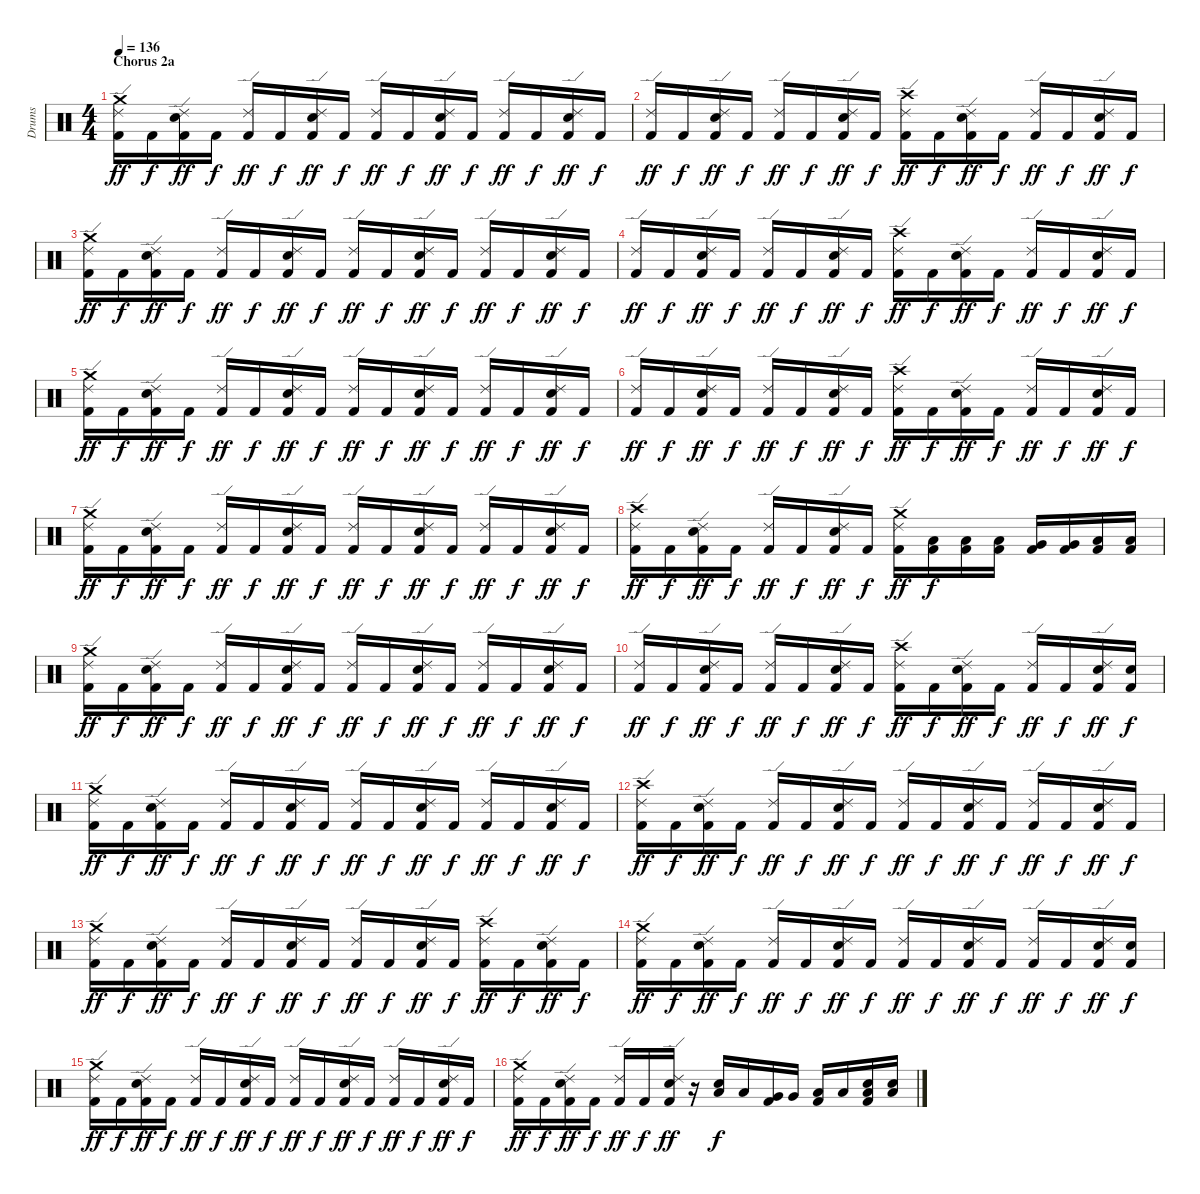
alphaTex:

\track ("Drums" "Drums") {instrument percussion}
\staff {score}
\articulation defaults
\ts (4 4)
\section ("" "Chorus 2a")
\tempo 136
\clef neutral
\ks c
("Crash medium (hit)" "Ride (edge) 2" "Kick (hit) 2").16{dy ff} "Kick (hit) 2".16{dy f} ("Ride (edge) 2" "Snare (hit) 2" "Kick (hit) 2").16{dy ff} "Kick (hit) 2".16{dy f} ("Ride (edge) 2" "Kick (hit) 2").16{dy ff} "Kick (hit) 2".16{dy f} ("Ride (edge) 2" "Snare (hit) 2" "Kick (hit) 2").16{dy ff} "Kick (hit) 2".16{dy f} ("Ride (edge) 2" "Kick (hit) 2").16{dy ff} "Kick (hit) 2".16{dy f} ("Ride (edge) 2" "Snare (hit) 2" "Kick (hit) 2").16{dy ff} "Kick (hit) 2".16{dy f} ("Ride (edge) 2" "Kick (hit) 2").16{dy ff} "Kick (hit) 2".16{dy f} ("Ride (edge) 2" "Snare (hit) 2" "Kick (hit) 2").16{dy ff} "Kick (hit) 2".16{dy f} |
("Ride (edge) 2" "Kick (hit) 2").16{dy ff} "Kick (hit) 2".16{dy f} ("Ride (edge) 2" "Snare (hit) 2" "Kick (hit) 2").16{dy ff} "Kick (hit) 2".16{dy f} ("Ride (edge) 2" "Kick (hit) 2").16{dy ff} "Kick (hit) 2".16{dy f} ("Ride (edge) 2" "Snare (hit) 2" "Kick (hit) 2").16{dy ff} "Kick (hit) 2".16{dy f} ("Crash high (hit)" "Ride (edge) 2" "Kick (hit) 2").16{dy ff} "Kick (hit) 2".16{dy f} ("Ride (edge) 2" "Snare (hit) 2" "Kick (hit) 2").16{dy ff} "Kick (hit) 2".16{dy f} ("Ride (edge) 2" "Kick (hit) 2").16{dy ff} "Kick (hit) 2".16{dy f} ("Ride (edge) 2" "Snare (hit) 2" "Kick (hit) 2").16{dy ff} "Kick (hit) 2".16{dy f} |
("Crash medium (hit)" "Ride (edge) 2" "Kick (hit) 2").16{dy ff} "Kick (hit) 2".16{dy f} ("Ride (edge) 2" "Snare (hit) 2" "Kick (hit) 2").16{dy ff} "Kick (hit) 2".16{dy f} ("Ride (edge) 2" "Kick (hit) 2").16{dy ff} "Kick (hit) 2".16{dy f} ("Ride (edge) 2" "Snare (hit) 2" "Kick (hit) 2").16{dy ff} "Kick (hit) 2".16{dy f} ("Ride (edge) 2" "Kick (hit) 2").16{dy ff} "Kick (hit) 2".16{dy f} ("Ride (edge) 2" "Snare (hit) 2" "Kick (hit) 2").16{dy ff} "Kick (hit) 2".16{dy f} ("Ride (edge) 2" "Kick (hit) 2").16{dy ff} "Kick (hit) 2".16{dy f} ("Ride (edge) 2" "Snare (hit) 2" "Kick (hit) 2").16{dy ff} "Kick (hit) 2".16{dy f} |
("Ride (edge) 2" "Kick (hit) 2").16{dy ff} "Kick (hit) 2".16{dy f} ("Ride (edge) 2" "Snare (hit) 2" "Kick (hit) 2").16{dy ff} "Kick (hit) 2".16{dy f} ("Ride (edge) 2" "Kick (hit) 2").16{dy ff} "Kick (hit) 2".16{dy f} ("Ride (edge) 2" "Snare (hit) 2" "Kick (hit) 2").16{dy ff} "Kick (hit) 2".16{dy f} ("Crash high (hit)" "Ride (edge) 2" "Kick (hit) 2").16{dy ff} "Kick (hit) 2".16{dy f} ("Ride (edge) 2" "Snare (hit) 2" "Kick (hit) 2").16{dy ff} "Kick (hit) 2".16{dy f} ("Ride (edge) 2" "Kick (hit) 2").16{dy ff} "Kick (hit) 2".16{dy f} ("Ride (edge) 2" "Snare (hit) 2" "Kick (hit) 2").16{dy ff} "Kick (hit) 2".16{dy f} |
("Crash medium (hit)" "Ride (edge) 2" "Kick (hit) 2").16{dy ff} "Kick (hit) 2".16{dy f} ("Ride (edge) 2" "Snare (hit) 2" "Kick (hit) 2").16{dy ff} "Kick (hit) 2".16{dy f} ("Ride (edge) 2" "Kick (hit) 2").16{dy ff} "Kick (hit) 2".16{dy f} ("Ride (edge) 2" "Snare (hit) 2" "Kick (hit) 2").16{dy ff} "Kick (hit) 2".16{dy f} ("Ride (edge) 2" "Kick (hit) 2").16{dy ff} "Kick (hit) 2".16{dy f} ("Ride (edge) 2" "Snare (hit) 2" "Kick (hit) 2").16{dy ff} "Kick (hit) 2".16{dy f} ("Ride (edge) 2" "Kick (hit) 2").16{dy ff} "Kick (hit) 2".16{dy f} ("Ride (edge) 2" "Snare (hit) 2" "Kick (hit) 2").16{dy ff} "Kick (hit) 2".16{dy f} |
("Ride (edge) 2" "Kick (hit) 2").16{dy ff} "Kick (hit) 2".16{dy f} ("Ride (edge) 2" "Snare (hit) 2" "Kick (hit) 2").16{dy ff} "Kick (hit) 2".16{dy f} ("Ride (edge) 2" "Kick (hit) 2").16{dy ff} "Kick (hit) 2".16{dy f} ("Ride (edge) 2" "Snare (hit) 2" "Kick (hit) 2").16{dy ff} "Kick (hit) 2".16{dy f} ("Crash high (hit)" "Ride (edge) 2" "Kick (hit) 2").16{dy ff} "Kick (hit) 2".16{dy f} ("Ride (edge) 2" "Snare (hit) 2" "Kick (hit) 2").16{dy ff} "Kick (hit) 2".16{dy f} ("Ride (edge) 2" "Kick (hit) 2").16{dy ff} "Kick (hit) 2".16{dy f} ("Ride (edge) 2" "Snare (hit) 2" "Kick (hit) 2").16{dy ff} "Kick (hit) 2".16{dy f} |
("Crash medium (hit)" "Ride (edge) 2" "Kick (hit) 2").16{dy ff} "Kick (hit) 2".16{dy f} ("Ride (edge) 2" "Snare (hit) 2" "Kick (hit) 2").16{dy ff} "Kick (hit) 2".16{dy f} ("Ride (edge) 2" "Kick (hit) 2").16{dy ff} "Kick (hit) 2".16{dy f} ("Ride (edge) 2" "Snare (hit) 2" "Kick (hit) 2").16{dy ff} "Kick (hit) 2".16{dy f} ("Ride (edge) 2" "Kick (hit) 2").16{dy ff} "Kick (hit) 2".16{dy f} ("Ride (edge) 2" "Snare (hit) 2" "Kick (hit) 2").16{dy ff} "Kick (hit) 2".16{dy f} ("Ride (edge) 2" "Kick (hit) 2").16{dy ff} "Kick (hit) 2".16{dy f} ("Ride (edge) 2" "Snare (hit) 2" "Kick (hit) 2").16{dy ff} "Kick (hit) 2".16{dy f} |
("Crash high (hit)" "Ride (edge) 2" "Kick (hit) 2").16{dy ff} "Kick (hit) 2".16{dy f} ("Ride (edge) 2" "Snare (hit) 2" "Kick (hit) 2").16{dy ff} "Kick (hit) 2".16{dy f} ("Ride (edge) 2" "Kick (hit) 2").16{dy ff} "Kick (hit) 2".16{dy f} ("Ride (edge) 2" "Snare (hit) 2" "Kick (hit) 2").16{dy ff} "Kick (hit) 2".16{dy f} ("Crash medium (hit)" "Ride (edge) 2" "Kick (hit) 2").16{dy ff} ("Low Tom (hit)" "Kick (hit) 2").16{dy f} ("Low Tom (hit)" "Kick (hit) 2").16 ("Low Tom (hit)" "Kick (hit) 2").16 ("Very Low Tom (hit)" "Kick (hit) 2").16 ("Very Low Tom (hit)" "Kick (hit) 2").16 ("Low Floor Tom (hit)" "Kick (hit) 2").16 ("Low Floor Tom (hit)" "Kick (hit) 2").16 |
("Crash medium (hit)" "Ride (edge) 2" "Kick (hit) 2").16{dy ff} "Kick (hit) 2".16{dy f} ("Ride (edge) 2" "Snare (hit) 2" "Kick (hit) 2").16{dy ff} "Kick (hit) 2".16{dy f} ("Ride (edge) 2" "Kick (hit) 2").16{dy ff} "Kick (hit) 2".16{dy f} ("Ride (edge) 2" "Snare (hit) 2" "Kick (hit) 2").16{dy ff} "Kick (hit) 2".16{dy f} ("Ride (edge) 2" "Kick (hit) 2").16{dy ff} "Kick (hit) 2".16{dy f} ("Ride (edge) 2" "Snare (hit) 2" "Kick (hit) 2").16{dy ff} "Kick (hit) 2".16{dy f} ("Ride (edge) 2" "Kick (hit) 2").16{dy ff} "Kick (hit) 2".16{dy f} ("Ride (edge) 2" "Snare (hit) 2" "Kick (hit) 2").16{dy ff} "Kick (hit) 2".16{dy f} |
("Ride (edge) 2" "Kick (hit) 2").16{dy ff} "Kick (hit) 2".16{dy f} ("Ride (edge) 2" "Snare (hit) 2" "Kick (hit) 2").16{dy ff} "Kick (hit) 2".16{dy f} ("Ride (edge) 2" "Kick (hit) 2").16{dy ff} "Kick (hit) 2".16{dy f} ("Ride (edge) 2" "Snare (hit) 2" "Kick (hit) 2").16{dy ff} "Kick (hit) 2".16{dy f} ("Crash high (hit)" "Ride (edge) 2" "Kick (hit) 2").16{dy ff} "Kick (hit) 2".16{dy f} ("Ride (edge) 2" "Snare (hit) 2" "Kick (hit) 2").16{dy ff} "Kick (hit) 2".16{dy f} ("Ride (edge) 2" "Kick (hit) 2").16{dy ff} "Kick (hit) 2".16{dy f} ("Ride (edge) 2" "Snare (hit) 2" "Kick (hit) 2").16{dy ff} ("Snare (hit) 2" "Kick (hit) 2").16{dy f} |
("Crash medium (hit)" "Ride (edge) 2" "Kick (hit) 2").16{dy ff} "Kick (hit) 2".16{dy f} ("Ride (edge) 2" "Snare (hit) 2" "Kick (hit) 2").16{dy ff} "Kick (hit) 2".16{dy f} ("Ride (edge) 2" "Kick (hit) 2").16{dy ff} "Kick (hit) 2".16{dy f} ("Ride (edge) 2" "Snare (hit) 2" "Kick (hit) 2").16{dy ff} "Kick (hit) 2".16{dy f} ("Ride (edge) 2" "Kick (hit) 2").16{dy ff} "Kick (hit) 2".16{dy f} ("Ride (edge) 2" "Snare (hit) 2" "Kick (hit) 2").16{dy ff} "Kick (hit) 2".16{dy f} ("Ride (edge) 2" "Kick (hit) 2").16{dy ff} "Kick (hit) 2".16{dy f} ("Ride (edge) 2" "Snare (hit) 2" "Kick (hit) 2").16{dy ff} "Kick (hit) 2".16{dy f} |
("Crash high (hit)" "Ride (edge) 2" "Kick (hit) 2").16{dy ff} "Kick (hit) 2".16{dy f} ("Ride (edge) 2" "Snare (hit) 2" "Kick (hit) 2").16{dy ff} "Kick (hit) 2".16{dy f} ("Ride (edge) 2" "Kick (hit) 2").16{dy ff} "Kick (hit) 2".16{dy f} ("Ride (edge) 2" "Snare (hit) 2" "Kick (hit) 2").16{dy ff} "Kick (hit) 2".16{dy f} ("Ride (edge) 2" "Kick (hit) 2").16{dy ff} "Kick (hit) 2".16{dy f} ("Ride (edge) 2" "Snare (hit) 2" "Kick (hit) 2").16{dy ff} "Kick (hit) 2".16{dy f} ("Ride (edge) 2" "Kick (hit) 2").16{dy ff} "Kick (hit) 2".16{dy f} ("Ride (edge) 2" "Snare (hit) 2" "Kick (hit) 2").16{dy ff} "Kick (hit) 2".16{dy f} |
("Crash medium (hit)" "Ride (edge) 2" "Kick (hit) 2").16{dy ff} "Kick (hit) 2".16{dy f} ("Ride (edge) 2" "Snare (hit) 2" "Kick (hit) 2").16{dy ff} "Kick (hit) 2".16{dy f} ("Ride (edge) 2" "Kick (hit) 2").16{dy ff} "Kick (hit) 2".16{dy f} ("Ride (edge) 2" "Snare (hit) 2" "Kick (hit) 2").16{dy ff} "Kick (hit) 2".16{dy f} ("Ride (edge) 2" "Kick (hit) 2").16{dy ff} "Kick (hit) 2".16{dy f} ("Ride (edge) 2" "Snare (hit) 2" "Kick (hit) 2").16{dy ff} "Kick (hit) 2".16{dy f} ("Crash high (hit)" "Ride (edge) 2" "Kick (hit) 2").16{dy ff} "Kick (hit) 2".16{dy f} ("Ride (edge) 2" "Snare (hit) 2" "Kick (hit) 2").16{dy ff} "Kick (hit) 2".16{dy f} |
("Crash medium (hit)" "Ride (edge) 2" "Kick (hit) 2").16{dy ff} "Kick (hit) 2".16{dy f} ("Ride (edge) 2" "Snare (hit) 2" "Kick (hit) 2").16{dy ff} "Kick (hit) 2".16{dy f} ("Ride (edge) 2" "Kick (hit) 2").16{dy ff} "Kick (hit) 2".16{dy f} ("Ride (edge) 2" "Snare (hit) 2" "Kick (hit) 2").16{dy ff} "Kick (hit) 2".16{dy f} ("Ride (edge) 2" "Kick (hit) 2").16{dy ff} "Kick (hit) 2".16{dy f} ("Ride (edge) 2" "Snare (hit) 2" "Kick (hit) 2").16{dy ff} "Kick (hit) 2".16{dy f} ("Ride (edge) 2" "Kick (hit) 2").16{dy ff} "Kick (hit) 2".16{dy f} ("Ride (edge) 2" "Snare (hit) 2" "Kick (hit) 2").16{dy ff} ("Snare (hit) 2" "Kick (hit) 2").16{dy f} |
("Crash medium (hit)" "Ride (edge) 2" "Kick (hit) 2").16{dy ff} "Kick (hit) 2".16{dy f} ("Ride (edge) 2" "Snare (hit) 2" "Kick (hit) 2").16{dy ff} "Kick (hit) 2".16{dy f} ("Ride (edge) 2" "Kick (hit) 2").16{dy ff} "Kick (hit) 2".16{dy f} ("Ride (edge) 2" "Snare (hit) 2" "Kick (hit) 2").16{dy ff} "Kick (hit) 2".16{dy f} ("Ride (edge) 2" "Kick (hit) 2").16{dy ff} "Kick (hit) 2".16{dy f} ("Ride (edge) 2" "Snare (hit) 2" "Kick (hit) 2").16{dy ff} "Kick (hit) 2".16{dy f} ("Ride (edge) 2" "Kick (hit) 2").16{dy ff} "Kick (hit) 2".16{dy f} ("Ride (edge) 2" "Snare (hit) 2" "Kick (hit) 2").16{dy ff} "Kick (hit) 2".16{dy f} |
("Crash medium (hit)" "Ride (edge) 2" "Kick (hit) 2").16{dy ff} "Kick (hit) 2".16{dy f} ("Ride (edge) 2" "Snare (hit) 2" "Kick (hit) 2").16{dy ff} "Kick (hit) 2".16{dy f} ("Ride (edge) 2" "Kick (hit) 2").16{dy ff} "Kick (hit) 2".16{dy f} ("Ride (edge) 2" "Snare (hit) 2" "Kick (hit) 2").16{dy ff} r.16 ("Snare (hit) 2" "Low Tom (hit)").16{dy f} "Low Tom (hit)".16 ("Very Low Tom (hit)" "Kick (hit) 2").16 "Very Low Tom (hit)".16 ("Low Floor Tom (hit)" "Kick (hit) 2").16 "Low Floor Tom (hit)".16 ("Snare (hit) 2" "Low Floor Tom (hit)" "Kick (hit) 2").16 ("Snare (hit) 2" "Low Floor Tom (hit)").16
